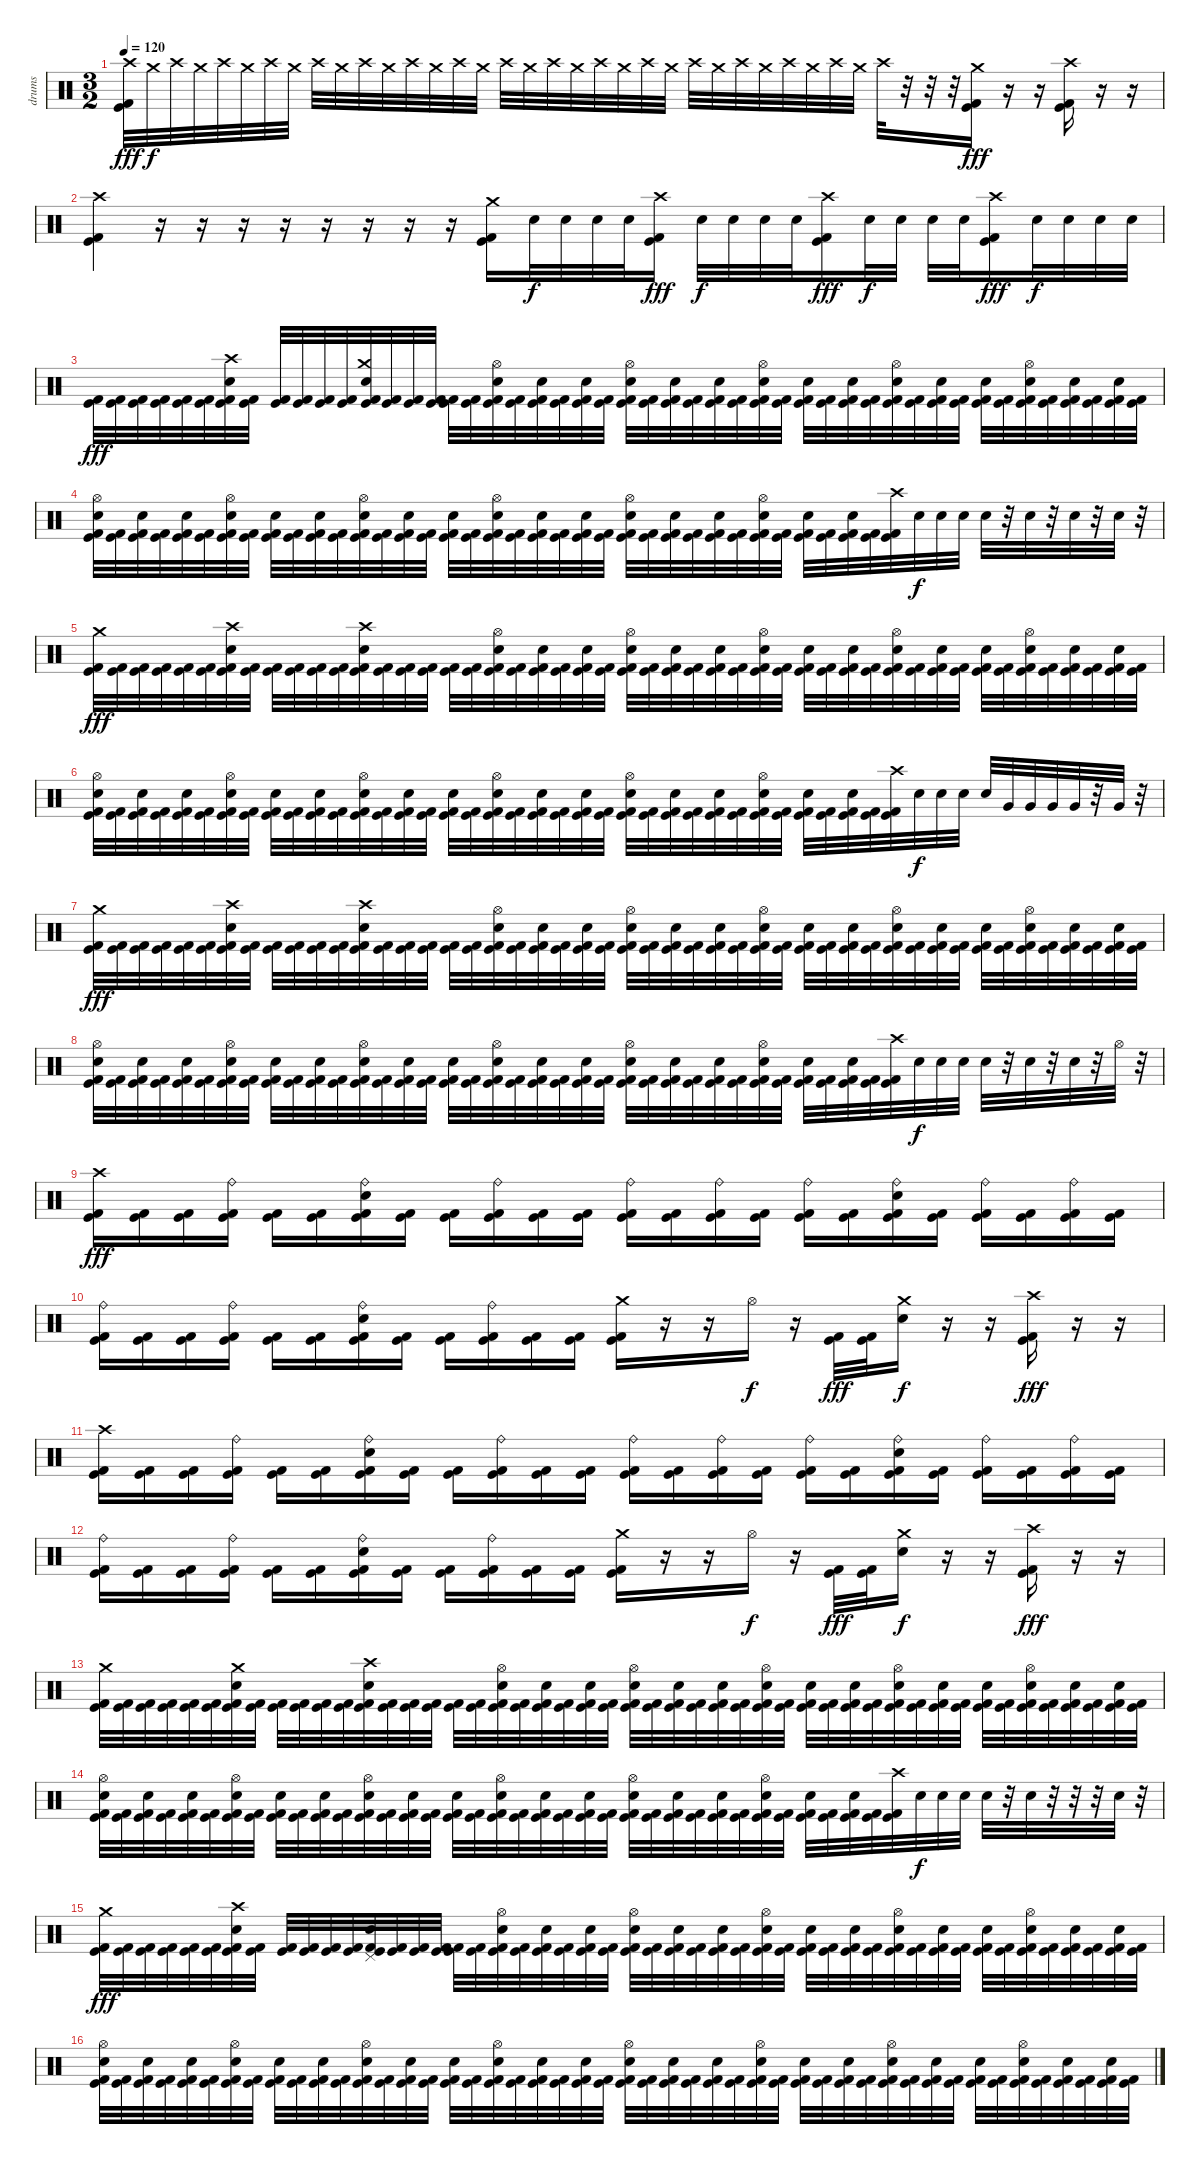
\track ("drums" "drums") {instrument percussion}
\staff {score}
\articulation defaults
\ts (3 2)
\tempo 120
\clef neutral
\ks c
("Crash high (hit)" "Kick (hit)" "Kick (hit) 2").32{dy fff} "Crash medium (hit)".32{dy f} "Crash high (hit)".32 "Crash medium (hit)".32 "Crash high (hit)".32 "Crash medium (hit)".32 "Crash high (hit)".32 "Crash medium (hit)".32 "Crash high (hit)".32 "Crash medium (hit)".32 "Crash high (hit)".32 "Crash medium (hit)".32 "Crash high (hit)".32 "Crash medium (hit)".32 "Crash high (hit)".32 "Crash medium (hit)".32 "Crash high (hit)".32 "Crash medium (hit)".32 "Crash high (hit)".32 "Crash medium (hit)".32 "Crash high (hit)".32 "Crash medium (hit)".32 "Crash high (hit)".32 "Crash medium (hit)".32 "Crash high (hit)".32 "Crash medium (hit)".32 "Crash high (hit)".32 "Crash medium (hit)".32 "Crash high (hit)".32 "Crash medium (hit)".32 "Crash high (hit)".32 "Crash medium (hit)".32 "Crash high (hit)".32 r.32 r.32 r.32 ("Crash medium (hit)" "Kick (hit)" "Kick (hit) 2").16{dy fff} r.16 r.16 ("Crash high (hit)" "Kick (hit)" "Kick (hit) 2").16 r.16 r.16 |
("Crash high (hit)" "Kick (hit)" "Kick (hit) 2").4 r.16 r.16 r.16 r.16 r.16 r.16 r.16 r.16 ("Crash medium (hit)" "Kick (hit)" "Kick (hit) 2").16 "Electric Snare (hit)".32{dy f} "Electric Snare (hit)".32 "Electric Snare (hit)".32 "Electric Snare (hit)".32 ("Crash high (hit)" "Kick (hit)" "Kick (hit) 2").16{dy fff} "Electric Snare (hit)".32{dy f} "Electric Snare (hit)".32 "Electric Snare (hit)".32 "Electric Snare (hit)".32 ("Crash high (hit)" "Kick (hit)" "Kick (hit) 2").16{dy fff} "Electric Snare (hit)".32{dy f} "Electric Snare (hit)".32 "Electric Snare (hit)".32 "Electric Snare (hit)".32 ("Crash high (hit)" "Kick (hit)" "Kick (hit) 2").16{dy fff} "Electric Snare (hit)".32{dy f} "Electric Snare (hit)".32 "Electric Snare (hit)".32 "Electric Snare (hit)".32 |
("Kick (hit)" "Kick (hit) 2").32{dy fff} ("Kick (hit)" "Kick (hit) 2").32 ("Kick (hit)" "Kick (hit) 2").32 ("Kick (hit)" "Kick (hit) 2").32 ("Kick (hit)" "Kick (hit) 2").32 ("Kick (hit)" "Kick (hit) 2").32 ("Crash high (hit)" "Electric Snare (hit)" "Kick (hit)" "Kick (hit) 2").32 ("Kick (hit)" "Kick (hit) 2").32 ("Kick (hit)" "Kick (hit) 2").32 ("Kick (hit)" "Kick (hit) 2").32 ("Kick (hit)" "Kick (hit) 2").32 ("Kick (hit)" "Kick (hit) 2").32 ("Crash medium (hit)" "Electric Snare (hit)" "Kick (hit)" "Kick (hit) 2").32 ("Kick (hit)" "Kick (hit) 2").32 ("Kick (hit)" "Kick (hit) 2").32 ("Kick (hit)" "Kick (hit) 2").32 ("Kick (hit)" "Kick (hit) 2").32 ("Kick (hit)" "Kick (hit) 2").32 ("Hi-Hat (open)" "Electric Snare (hit)" "Kick (hit)" "Kick (hit) 2").32 ("Kick (hit)" "Kick (hit) 2").32 ("Electric Snare (hit)" "Kick (hit)" "Kick (hit) 2").32 ("Kick (hit)" "Kick (hit) 2").32 ("Electric Snare (hit)" "Kick (hit)" "Kick (hit) 2").32 ("Kick (hit)" "Kick (hit) 2").32 ("Hi-Hat (open)" "Electric Snare (hit)" "Kick (hit)" "Kick (hit) 2").32 ("Kick (hit)" "Kick (hit) 2").32 ("Electric Snare (hit)" "Kick (hit)" "Kick (hit) 2").32 ("Kick (hit)" "Kick (hit) 2").32 ("Electric Snare (hit)" "Kick (hit)" "Kick (hit) 2").32 ("Kick (hit)" "Kick (hit) 2").32 ("Hi-Hat (open)" "Electric Snare (hit)" "Kick (hit)" "Kick (hit) 2").32 ("Kick (hit)" "Kick (hit) 2").32 ("Electric Snare (hit)" "Kick (hit)" "Kick (hit) 2").32 ("Kick (hit)" "Kick (hit) 2").32 ("Electric Snare (hit)" "Kick (hit)" "Kick (hit) 2").32 ("Kick (hit)" "Kick (hit) 2").32 ("Hi-Hat (open)" "Electric Snare (hit)" "Kick (hit)" "Kick (hit) 2").32 ("Kick (hit)" "Kick (hit) 2").32 ("Electric Snare (hit)" "Kick (hit)" "Kick (hit) 2").32 ("Kick (hit)" "Kick (hit) 2").32 ("Electric Snare (hit)" "Kick (hit)" "Kick (hit) 2").32 ("Kick (hit)" "Kick (hit) 2").32 ("Hi-Hat (open)" "Electric Snare (hit)" "Kick (hit)" "Kick (hit) 2").32 ("Kick (hit)" "Kick (hit) 2").32 ("Electric Snare (hit)" "Kick (hit)" "Kick (hit) 2").32 ("Kick (hit)" "Kick (hit) 2").32 ("Electric Snare (hit)" "Kick (hit)" "Kick (hit) 2").32 ("Kick (hit)" "Kick (hit) 2").32 |
("Hi-Hat (open)" "Electric Snare (hit)" "Kick (hit)" "Kick (hit) 2").32 ("Kick (hit)" "Kick (hit) 2").32 ("Electric Snare (hit)" "Kick (hit)" "Kick (hit) 2").32 ("Kick (hit)" "Kick (hit) 2").32 ("Electric Snare (hit)" "Kick (hit)" "Kick (hit) 2").32 ("Kick (hit)" "Kick (hit) 2").32 ("Hi-Hat (open)" "Electric Snare (hit)" "Kick (hit)" "Kick (hit) 2").32 ("Kick (hit)" "Kick (hit) 2").32 ("Electric Snare (hit)" "Kick (hit)" "Kick (hit) 2").32 ("Kick (hit)" "Kick (hit) 2").32 ("Electric Snare (hit)" "Kick (hit)" "Kick (hit) 2").32 ("Kick (hit)" "Kick (hit) 2").32 ("Hi-Hat (open)" "Electric Snare (hit)" "Kick (hit)" "Kick (hit) 2").32 ("Kick (hit)" "Kick (hit) 2").32 ("Electric Snare (hit)" "Kick (hit)" "Kick (hit) 2").32 ("Kick (hit)" "Kick (hit) 2").32 ("Electric Snare (hit)" "Kick (hit)" "Kick (hit) 2").32 ("Kick (hit)" "Kick (hit) 2").32 ("Hi-Hat (open)" "Electric Snare (hit)" "Kick (hit)" "Kick (hit) 2").32 ("Kick (hit)" "Kick (hit) 2").32 ("Electric Snare (hit)" "Kick (hit)" "Kick (hit) 2").32 ("Kick (hit)" "Kick (hit) 2").32 ("Electric Snare (hit)" "Kick (hit)" "Kick (hit) 2").32 ("Kick (hit)" "Kick (hit) 2").32 ("Hi-Hat (open)" "Electric Snare (hit)" "Kick (hit)" "Kick (hit) 2").32 ("Kick (hit)" "Kick (hit) 2").32 ("Electric Snare (hit)" "Kick (hit)" "Kick (hit) 2").32 ("Kick (hit)" "Kick (hit) 2").32 ("Electric Snare (hit)" "Kick (hit)" "Kick (hit) 2").32 ("Kick (hit)" "Kick (hit) 2").32 ("Hi-Hat (open)" "Electric Snare (hit)" "Kick (hit)" "Kick (hit) 2").32 ("Kick (hit)" "Kick (hit) 2").32 ("Electric Snare (hit)" "Kick (hit)" "Kick (hit) 2").32 ("Kick (hit)" "Kick (hit) 2").32 ("Electric Snare (hit)" "Kick (hit)" "Kick (hit) 2").32 ("Kick (hit)" "Kick (hit) 2").32 ("Crash high (hit)" "Kick (hit)" "Kick (hit) 2").32 "Electric Snare (hit)".32{dy f} "Electric Snare (hit)".32 "Electric Snare (hit)".32 "Electric Snare (hit)".32 r.32 "Electric Snare (hit)".32 r.32 "Electric Snare (hit)".32 r.32 "Electric Snare (hit)".32 r.32 |
("Crash medium (hit)" "Kick (hit)" "Kick (hit) 2").32{dy fff} ("Kick (hit)" "Kick (hit) 2").32 ("Kick (hit)" "Kick (hit) 2").32 ("Kick (hit)" "Kick (hit) 2").32 ("Kick (hit)" "Kick (hit) 2").32 ("Kick (hit)" "Kick (hit) 2").32 ("Crash high (hit)" "Electric Snare (hit)" "Kick (hit)" "Kick (hit) 2").32 ("Kick (hit)" "Kick (hit) 2").32 ("Kick (hit)" "Kick (hit) 2").32 ("Kick (hit)" "Kick (hit) 2").32 ("Kick (hit)" "Kick (hit) 2").32 ("Kick (hit)" "Kick (hit) 2").32 ("Crash high (hit)" "Electric Snare (hit)" "Kick (hit)" "Kick (hit) 2").32 ("Kick (hit)" "Kick (hit) 2").32 ("Kick (hit)" "Kick (hit) 2").32 ("Kick (hit)" "Kick (hit) 2").32 ("Kick (hit)" "Kick (hit) 2").32 ("Kick (hit)" "Kick (hit) 2").32 ("Hi-Hat (open)" "Electric Snare (hit)" "Kick (hit)" "Kick (hit) 2").32 ("Kick (hit)" "Kick (hit) 2").32 ("Electric Snare (hit)" "Kick (hit)" "Kick (hit) 2").32 ("Kick (hit)" "Kick (hit) 2").32 ("Electric Snare (hit)" "Kick (hit)" "Kick (hit) 2").32 ("Kick (hit)" "Kick (hit) 2").32 ("Hi-Hat (open)" "Electric Snare (hit)" "Kick (hit)" "Kick (hit) 2").32 ("Kick (hit)" "Kick (hit) 2").32 ("Electric Snare (hit)" "Kick (hit)" "Kick (hit) 2").32 ("Kick (hit)" "Kick (hit) 2").32 ("Electric Snare (hit)" "Kick (hit)" "Kick (hit) 2").32 ("Kick (hit)" "Kick (hit) 2").32 ("Hi-Hat (open)" "Electric Snare (hit)" "Kick (hit)" "Kick (hit) 2").32 ("Kick (hit)" "Kick (hit) 2").32 ("Electric Snare (hit)" "Kick (hit)" "Kick (hit) 2").32 ("Kick (hit)" "Kick (hit) 2").32 ("Electric Snare (hit)" "Kick (hit)" "Kick (hit) 2").32 ("Kick (hit)" "Kick (hit) 2").32 ("Hi-Hat (open)" "Electric Snare (hit)" "Kick (hit)" "Kick (hit) 2").32 ("Kick (hit)" "Kick (hit) 2").32 ("Electric Snare (hit)" "Kick (hit)" "Kick (hit) 2").32 ("Kick (hit)" "Kick (hit) 2").32 ("Electric Snare (hit)" "Kick (hit)" "Kick (hit) 2").32 ("Kick (hit)" "Kick (hit) 2").32 ("Hi-Hat (open)" "Electric Snare (hit)" "Kick (hit)" "Kick (hit) 2").32 ("Kick (hit)" "Kick (hit) 2").32 ("Electric Snare (hit)" "Kick (hit)" "Kick (hit) 2").32 ("Kick (hit)" "Kick (hit) 2").32 ("Electric Snare (hit)" "Kick (hit)" "Kick (hit) 2").32 ("Kick (hit)" "Kick (hit) 2").32 |
("Hi-Hat (open)" "Electric Snare (hit)" "Kick (hit)" "Kick (hit) 2").32 ("Kick (hit)" "Kick (hit) 2").32 ("Electric Snare (hit)" "Kick (hit)" "Kick (hit) 2").32 ("Kick (hit)" "Kick (hit) 2").32 ("Electric Snare (hit)" "Kick (hit)" "Kick (hit) 2").32 ("Kick (hit)" "Kick (hit) 2").32 ("Hi-Hat (open)" "Electric Snare (hit)" "Kick (hit)" "Kick (hit) 2").32 ("Kick (hit)" "Kick (hit) 2").32 ("Electric Snare (hit)" "Kick (hit)" "Kick (hit) 2").32 ("Kick (hit)" "Kick (hit) 2").32 ("Electric Snare (hit)" "Kick (hit)" "Kick (hit) 2").32 ("Kick (hit)" "Kick (hit) 2").32 ("Hi-Hat (open)" "Electric Snare (hit)" "Kick (hit)" "Kick (hit) 2").32 ("Kick (hit)" "Kick (hit) 2").32 ("Electric Snare (hit)" "Kick (hit)" "Kick (hit) 2").32 ("Kick (hit)" "Kick (hit) 2").32 ("Electric Snare (hit)" "Kick (hit)" "Kick (hit) 2").32 ("Kick (hit)" "Kick (hit) 2").32 ("Hi-Hat (open)" "Electric Snare (hit)" "Kick (hit)" "Kick (hit) 2").32 ("Kick (hit)" "Kick (hit) 2").32 ("Electric Snare (hit)" "Kick (hit)" "Kick (hit) 2").32 ("Kick (hit)" "Kick (hit) 2").32 ("Electric Snare (hit)" "Kick (hit)" "Kick (hit) 2").32 ("Kick (hit)" "Kick (hit) 2").32 ("Hi-Hat (open)" "Electric Snare (hit)" "Kick (hit)" "Kick (hit) 2").32 ("Kick (hit)" "Kick (hit) 2").32 ("Electric Snare (hit)" "Kick (hit)" "Kick (hit) 2").32 ("Kick (hit)" "Kick (hit) 2").32 ("Electric Snare (hit)" "Kick (hit)" "Kick (hit) 2").32 ("Kick (hit)" "Kick (hit) 2").32 ("Hi-Hat (open)" "Electric Snare (hit)" "Kick (hit)" "Kick (hit) 2").32 ("Kick (hit)" "Kick (hit) 2").32 ("Electric Snare (hit)" "Kick (hit)" "Kick (hit) 2").32 ("Kick (hit)" "Kick (hit) 2").32 ("Electric Snare (hit)" "Kick (hit)" "Kick (hit) 2").32 ("Kick (hit)" "Kick (hit) 2").32 ("Crash high (hit)" "Kick (hit)" "Kick (hit) 2").32 "Electric Snare (hit)".32{dy f} "Electric Snare (hit)".32 "Electric Snare (hit)".32 "Electric Snare (hit)".32 "Very Low Tom (hit)".32 "Very Low Tom (hit)".32 "Very Low Tom (hit)".32 "Very Low Tom (hit)".32 r.32 "Very Low Tom (hit)".32 r.32 |
("Crash medium (hit)" "Kick (hit)" "Kick (hit) 2").32{dy fff} ("Kick (hit)" "Kick (hit) 2").32 ("Kick (hit)" "Kick (hit) 2").32 ("Kick (hit)" "Kick (hit) 2").32 ("Kick (hit)" "Kick (hit) 2").32 ("Kick (hit)" "Kick (hit) 2").32 ("Crash high (hit)" "Electric Snare (hit)" "Kick (hit)" "Kick (hit) 2").32 ("Kick (hit)" "Kick (hit) 2").32 ("Kick (hit)" "Kick (hit) 2").32 ("Kick (hit)" "Kick (hit) 2").32 ("Kick (hit)" "Kick (hit) 2").32 ("Kick (hit)" "Kick (hit) 2").32 ("Crash high (hit)" "Electric Snare (hit)" "Kick (hit)" "Kick (hit) 2").32 ("Kick (hit)" "Kick (hit) 2").32 ("Kick (hit)" "Kick (hit) 2").32 ("Kick (hit)" "Kick (hit) 2").32 ("Kick (hit)" "Kick (hit) 2").32 ("Kick (hit)" "Kick (hit) 2").32 ("Hi-Hat (open)" "Electric Snare (hit)" "Kick (hit)" "Kick (hit) 2").32 ("Kick (hit)" "Kick (hit) 2").32 ("Electric Snare (hit)" "Kick (hit)" "Kick (hit) 2").32 ("Kick (hit)" "Kick (hit) 2").32 ("Electric Snare (hit)" "Kick (hit)" "Kick (hit) 2").32 ("Kick (hit)" "Kick (hit) 2").32 ("Hi-Hat (open)" "Electric Snare (hit)" "Kick (hit)" "Kick (hit) 2").32 ("Kick (hit)" "Kick (hit) 2").32 ("Electric Snare (hit)" "Kick (hit)" "Kick (hit) 2").32 ("Kick (hit)" "Kick (hit) 2").32 ("Electric Snare (hit)" "Kick (hit)" "Kick (hit) 2").32 ("Kick (hit)" "Kick (hit) 2").32 ("Hi-Hat (open)" "Electric Snare (hit)" "Kick (hit)" "Kick (hit) 2").32 ("Kick (hit)" "Kick (hit) 2").32 ("Electric Snare (hit)" "Kick (hit)" "Kick (hit) 2").32 ("Kick (hit)" "Kick (hit) 2").32 ("Electric Snare (hit)" "Kick (hit)" "Kick (hit) 2").32 ("Kick (hit)" "Kick (hit) 2").32 ("Hi-Hat (open)" "Electric Snare (hit)" "Kick (hit)" "Kick (hit) 2").32 ("Kick (hit)" "Kick (hit) 2").32 ("Electric Snare (hit)" "Kick (hit)" "Kick (hit) 2").32 ("Kick (hit)" "Kick (hit) 2").32 ("Electric Snare (hit)" "Kick (hit)" "Kick (hit) 2").32 ("Kick (hit)" "Kick (hit) 2").32 ("Hi-Hat (open)" "Electric Snare (hit)" "Kick (hit)" "Kick (hit) 2").32 ("Kick (hit)" "Kick (hit) 2").32 ("Electric Snare (hit)" "Kick (hit)" "Kick (hit) 2").32 ("Kick (hit)" "Kick (hit) 2").32 ("Electric Snare (hit)" "Kick (hit)" "Kick (hit) 2").32 ("Kick (hit)" "Kick (hit) 2").32 |
("Hi-Hat (open)" "Electric Snare (hit)" "Kick (hit)" "Kick (hit) 2").32 ("Kick (hit)" "Kick (hit) 2").32 ("Electric Snare (hit)" "Kick (hit)" "Kick (hit) 2").32 ("Kick (hit)" "Kick (hit) 2").32 ("Electric Snare (hit)" "Kick (hit)" "Kick (hit) 2").32 ("Kick (hit)" "Kick (hit) 2").32 ("Hi-Hat (open)" "Electric Snare (hit)" "Kick (hit)" "Kick (hit) 2").32 ("Kick (hit)" "Kick (hit) 2").32 ("Electric Snare (hit)" "Kick (hit)" "Kick (hit) 2").32 ("Kick (hit)" "Kick (hit) 2").32 ("Electric Snare (hit)" "Kick (hit)" "Kick (hit) 2").32 ("Kick (hit)" "Kick (hit) 2").32 ("Hi-Hat (open)" "Electric Snare (hit)" "Kick (hit)" "Kick (hit) 2").32 ("Kick (hit)" "Kick (hit) 2").32 ("Electric Snare (hit)" "Kick (hit)" "Kick (hit) 2").32 ("Kick (hit)" "Kick (hit) 2").32 ("Electric Snare (hit)" "Kick (hit)" "Kick (hit) 2").32 ("Kick (hit)" "Kick (hit) 2").32 ("Hi-Hat (open)" "Electric Snare (hit)" "Kick (hit)" "Kick (hit) 2").32 ("Kick (hit)" "Kick (hit) 2").32 ("Electric Snare (hit)" "Kick (hit)" "Kick (hit) 2").32 ("Kick (hit)" "Kick (hit) 2").32 ("Electric Snare (hit)" "Kick (hit)" "Kick (hit) 2").32 ("Kick (hit)" "Kick (hit) 2").32 ("Hi-Hat (open)" "Electric Snare (hit)" "Kick (hit)" "Kick (hit) 2").32 ("Kick (hit)" "Kick (hit) 2").32 ("Electric Snare (hit)" "Kick (hit)" "Kick (hit) 2").32 ("Kick (hit)" "Kick (hit) 2").32 ("Electric Snare (hit)" "Kick (hit)" "Kick (hit) 2").32 ("Kick (hit)" "Kick (hit) 2").32 ("Hi-Hat (open)" "Electric Snare (hit)" "Kick (hit)" "Kick (hit) 2").32 ("Kick (hit)" "Kick (hit) 2").32 ("Electric Snare (hit)" "Kick (hit)" "Kick (hit) 2").32 ("Kick (hit)" "Kick (hit) 2").32 ("Electric Snare (hit)" "Kick (hit)" "Kick (hit) 2").32 ("Kick (hit)" "Kick (hit) 2").32 ("Crash high (hit)" "Kick (hit)" "Kick (hit) 2").32 "Electric Snare (hit)".32{dy f} "Electric Snare (hit)".32 "Electric Snare (hit)".32 "Electric Snare (hit)".32 r.32 "Electric Snare (hit)".32 r.32 "Electric Snare (hit)".32 r.32 "Hi-Hat (open)".32 r.32 |
("Crash high (hit)" "Kick (hit)" "Kick (hit) 2").16{dy fff} ("Kick (hit)" "Kick (hit) 2").16 ("Kick (hit)" "Kick (hit) 2").16 ("Ride (bell)" "Kick (hit)" "Kick (hit) 2").16 ("Kick (hit)" "Kick (hit) 2").16 ("Kick (hit)" "Kick (hit) 2").16 ("Ride (bell)" "Electric Snare (hit)" "Kick (hit)" "Kick (hit) 2").16 ("Kick (hit)" "Kick (hit) 2").16 ("Kick (hit)" "Kick (hit) 2").16 ("Ride (bell)" "Kick (hit)" "Kick (hit) 2").16 ("Kick (hit)" "Kick (hit) 2").16 ("Kick (hit)" "Kick (hit) 2").16 ("Ride (bell)" "Kick (hit)" "Kick (hit) 2").16 ("Kick (hit)" "Kick (hit) 2").16 ("Ride (bell)" "Kick (hit)" "Kick (hit) 2").16 ("Kick (hit)" "Kick (hit) 2").16 ("Ride (bell)" "Kick (hit)" "Kick (hit) 2").16 ("Kick (hit)" "Kick (hit) 2").16 ("Ride (bell)" "Electric Snare (hit)" "Kick (hit)" "Kick (hit) 2").16 ("Kick (hit)" "Kick (hit) 2").16 ("Ride (bell)" "Kick (hit)" "Kick (hit) 2").16 ("Kick (hit)" "Kick (hit) 2").16 ("Ride (bell)" "Kick (hit)" "Kick (hit) 2").16 ("Kick (hit)" "Kick (hit) 2").16 |
("Ride (bell)" "Kick (hit)" "Kick (hit) 2").16 ("Kick (hit)" "Kick (hit) 2").16 ("Kick (hit)" "Kick (hit) 2").16 ("Ride (bell)" "Kick (hit)" "Kick (hit) 2").16 ("Kick (hit)" "Kick (hit) 2").16 ("Kick (hit)" "Kick (hit) 2").16 ("Ride (bell)" "Electric Snare (hit)" "Kick (hit)" "Kick (hit) 2").16 ("Kick (hit)" "Kick (hit) 2").16 ("Kick (hit)" "Kick (hit) 2").16 ("Ride (bell)" "Kick (hit)" "Kick (hit) 2").16 ("Kick (hit)" "Kick (hit) 2").16 ("Kick (hit)" "Kick (hit) 2").16 ("Crash medium (hit)" "Kick (hit)" "Kick (hit) 2").16 r.16 r.16 "Hi-Hat (open)".16{dy f} r.16 ("Kick (hit)" "Kick (hit) 2").32{dy fff} ("Kick (hit)" "Kick (hit) 2").32 ("Crash medium (hit)" "Electric Snare (hit)").16{dy f} r.16 r.16 ("Crash high (hit)" "Kick (hit)" "Kick (hit) 2").16{dy fff} r.16 r.16 |
("Crash high (hit)" "Kick (hit)" "Kick (hit) 2").16 ("Kick (hit)" "Kick (hit) 2").16 ("Kick (hit)" "Kick (hit) 2").16 ("Ride (bell)" "Kick (hit)" "Kick (hit) 2").16 ("Kick (hit)" "Kick (hit) 2").16 ("Kick (hit)" "Kick (hit) 2").16 ("Ride (bell)" "Electric Snare (hit)" "Kick (hit)" "Kick (hit) 2").16 ("Kick (hit)" "Kick (hit) 2").16 ("Kick (hit)" "Kick (hit) 2").16 ("Ride (bell)" "Kick (hit)" "Kick (hit) 2").16 ("Kick (hit)" "Kick (hit) 2").16 ("Kick (hit)" "Kick (hit) 2").16 ("Ride (bell)" "Kick (hit)" "Kick (hit) 2").16 ("Kick (hit)" "Kick (hit) 2").16 ("Ride (bell)" "Kick (hit)" "Kick (hit) 2").16 ("Kick (hit)" "Kick (hit) 2").16 ("Ride (bell)" "Kick (hit)" "Kick (hit) 2").16 ("Kick (hit)" "Kick (hit) 2").16 ("Ride (bell)" "Electric Snare (hit)" "Kick (hit)" "Kick (hit) 2").16 ("Kick (hit)" "Kick (hit) 2").16 ("Ride (bell)" "Kick (hit)" "Kick (hit) 2").16 ("Kick (hit)" "Kick (hit) 2").16 ("Ride (bell)" "Kick (hit)" "Kick (hit) 2").16 ("Kick (hit)" "Kick (hit) 2").16 |
("Ride (bell)" "Kick (hit)" "Kick (hit) 2").16 ("Kick (hit)" "Kick (hit) 2").16 ("Kick (hit)" "Kick (hit) 2").16 ("Ride (bell)" "Kick (hit)" "Kick (hit) 2").16 ("Kick (hit)" "Kick (hit) 2").16 ("Kick (hit)" "Kick (hit) 2").16 ("Ride (bell)" "Electric Snare (hit)" "Kick (hit)" "Kick (hit) 2").16 ("Kick (hit)" "Kick (hit) 2").16 ("Kick (hit)" "Kick (hit) 2").16 ("Ride (bell)" "Kick (hit)" "Kick (hit) 2").16 ("Kick (hit)" "Kick (hit) 2").16 ("Kick (hit)" "Kick (hit) 2").16 ("Crash medium (hit)" "Kick (hit)" "Kick (hit) 2").16 r.16 r.16 "Hi-Hat (open)".16{dy f} r.16 ("Kick (hit)" "Kick (hit) 2").32{dy fff} ("Kick (hit)" "Kick (hit) 2").32 ("Crash medium (hit)" "Electric Snare (hit)").16{dy f} r.16 r.16 ("Crash high (hit)" "Kick (hit)" "Kick (hit) 2").16{dy fff} r.16 r.16 |
("Crash medium (hit)" "Kick (hit)" "Kick (hit) 2").32 ("Kick (hit)" "Kick (hit) 2").32 ("Kick (hit)" "Kick (hit) 2").32 ("Kick (hit)" "Kick (hit) 2").32 ("Kick (hit)" "Kick (hit) 2").32 ("Kick (hit)" "Kick (hit) 2").32 ("Crash medium (hit)" "Electric Snare (hit)" "Kick (hit)" "Kick (hit) 2").32 ("Kick (hit)" "Kick (hit) 2").32 ("Kick (hit)" "Kick (hit) 2").32 ("Kick (hit)" "Kick (hit) 2").32 ("Kick (hit)" "Kick (hit) 2").32 ("Kick (hit)" "Kick (hit) 2").32 ("Crash high (hit)" "Electric Snare (hit)" "Kick (hit)" "Kick (hit) 2").32 ("Kick (hit)" "Kick (hit) 2").32 ("Kick (hit)" "Kick (hit) 2").32 ("Kick (hit)" "Kick (hit) 2").32 ("Kick (hit)" "Kick (hit) 2").32 ("Kick (hit)" "Kick (hit) 2").32 ("Hi-Hat (open)" "Electric Snare (hit)" "Kick (hit)" "Kick (hit) 2").32 ("Kick (hit)" "Kick (hit) 2").32 ("Electric Snare (hit)" "Kick (hit)" "Kick (hit) 2").32 ("Kick (hit)" "Kick (hit) 2").32 ("Electric Snare (hit)" "Kick (hit)" "Kick (hit) 2").32 ("Kick (hit)" "Kick (hit) 2").32 ("Hi-Hat (open)" "Electric Snare (hit)" "Kick (hit)" "Kick (hit) 2").32 ("Kick (hit)" "Kick (hit) 2").32 ("Electric Snare (hit)" "Kick (hit)" "Kick (hit) 2").32 ("Kick (hit)" "Kick (hit) 2").32 ("Electric Snare (hit)" "Kick (hit)" "Kick (hit) 2").32 ("Kick (hit)" "Kick (hit) 2").32 ("Hi-Hat (open)" "Electric Snare (hit)" "Kick (hit)" "Kick (hit) 2").32 ("Kick (hit)" "Kick (hit) 2").32 ("Electric Snare (hit)" "Kick (hit)" "Kick (hit) 2").32 ("Kick (hit)" "Kick (hit) 2").32 ("Electric Snare (hit)" "Kick (hit)" "Kick (hit) 2").32 ("Kick (hit)" "Kick (hit) 2").32 ("Hi-Hat (open)" "Electric Snare (hit)" "Kick (hit)" "Kick (hit) 2").32 ("Kick (hit)" "Kick (hit) 2").32 ("Electric Snare (hit)" "Kick (hit)" "Kick (hit) 2").32 ("Kick (hit)" "Kick (hit) 2").32 ("Electric Snare (hit)" "Kick (hit)" "Kick (hit) 2").32 ("Kick (hit)" "Kick (hit) 2").32 ("Hi-Hat (open)" "Electric Snare (hit)" "Kick (hit)" "Kick (hit) 2").32 ("Kick (hit)" "Kick (hit) 2").32 ("Electric Snare (hit)" "Kick (hit)" "Kick (hit) 2").32 ("Kick (hit)" "Kick (hit) 2").32 ("Electric Snare (hit)" "Kick (hit)" "Kick (hit) 2").32 ("Kick (hit)" "Kick (hit) 2").32 |
("Hi-Hat (open)" "Electric Snare (hit)" "Kick (hit)" "Kick (hit) 2").32 ("Kick (hit)" "Kick (hit) 2").32 ("Electric Snare (hit)" "Kick (hit)" "Kick (hit) 2").32 ("Kick (hit)" "Kick (hit) 2").32 ("Electric Snare (hit)" "Kick (hit)" "Kick (hit) 2").32 ("Kick (hit)" "Kick (hit) 2").32 ("Hi-Hat (open)" "Electric Snare (hit)" "Kick (hit)" "Kick (hit) 2").32 ("Kick (hit)" "Kick (hit) 2").32 ("Electric Snare (hit)" "Kick (hit)" "Kick (hit) 2").32 ("Kick (hit)" "Kick (hit) 2").32 ("Electric Snare (hit)" "Kick (hit)" "Kick (hit) 2").32 ("Kick (hit)" "Kick (hit) 2").32 ("Hi-Hat (open)" "Electric Snare (hit)" "Kick (hit)" "Kick (hit) 2").32 ("Kick (hit)" "Kick (hit) 2").32 ("Electric Snare (hit)" "Kick (hit)" "Kick (hit) 2").32 ("Kick (hit)" "Kick (hit) 2").32 ("Electric Snare (hit)" "Kick (hit)" "Kick (hit) 2").32 ("Kick (hit)" "Kick (hit) 2").32 ("Hi-Hat (open)" "Electric Snare (hit)" "Kick (hit)" "Kick (hit) 2").32 ("Kick (hit)" "Kick (hit) 2").32 ("Electric Snare (hit)" "Kick (hit)" "Kick (hit) 2").32 ("Kick (hit)" "Kick (hit) 2").32 ("Electric Snare (hit)" "Kick (hit)" "Kick (hit) 2").32 ("Kick (hit)" "Kick (hit) 2").32 ("Hi-Hat (open)" "Electric Snare (hit)" "Kick (hit)" "Kick (hit) 2").32 ("Kick (hit)" "Kick (hit) 2").32 ("Electric Snare (hit)" "Kick (hit)" "Kick (hit) 2").32 ("Kick (hit)" "Kick (hit) 2").32 ("Electric Snare (hit)" "Kick (hit)" "Kick (hit) 2").32 ("Kick (hit)" "Kick (hit) 2").32 ("Hi-Hat (open)" "Electric Snare (hit)" "Kick (hit)" "Kick (hit) 2").32 ("Kick (hit)" "Kick (hit) 2").32 ("Electric Snare (hit)" "Kick (hit)" "Kick (hit) 2").32 ("Kick (hit)" "Kick (hit) 2").32 ("Electric Snare (hit)" "Kick (hit)" "Kick (hit) 2").32 ("Kick (hit)" "Kick (hit) 2").32 ("Crash high (hit)" "Kick (hit)" "Kick (hit) 2").32 "Electric Snare (hit)".32{dy f} "Electric Snare (hit)".32 "Electric Snare (hit)".32 "Electric Snare (hit)".32 r.32 "Electric Snare (hit)".32 r.32 r.32 r.32 "Electric Snare (hit)".32 r.32 |
("Crash medium (hit)" "Kick (hit)" "Kick (hit) 2").32{dy fff} ("Kick (hit)" "Kick (hit) 2").32 ("Kick (hit)" "Kick (hit) 2").32 ("Kick (hit)" "Kick (hit) 2").32 ("Kick (hit)" "Kick (hit) 2").32 ("Kick (hit)" "Kick (hit) 2").32 ("Crash high (hit)" "Electric Snare (hit)" "Kick (hit)" "Kick (hit) 2").32 ("Kick (hit)" "Kick (hit) 2").32 ("Kick (hit)" "Kick (hit) 2").32 ("Kick (hit)" "Kick (hit) 2").32 ("Kick (hit)" "Kick (hit) 2").32 ("Kick (hit)" "Kick (hit) 2").32 ("Pedal Hi-Hat (hit)" "Electric Snare (hit)" "Kick (hit)" "Kick (hit) 2").32 ("Kick (hit)" "Kick (hit) 2").32 ("Kick (hit)" "Kick (hit) 2").32 ("Kick (hit)" "Kick (hit) 2").32 ("Kick (hit)" "Kick (hit) 2").32 ("Kick (hit)" "Kick (hit) 2").32 ("Hi-Hat (open)" "Electric Snare (hit)" "Kick (hit)" "Kick (hit) 2").32 ("Kick (hit)" "Kick (hit) 2").32 ("Electric Snare (hit)" "Kick (hit)" "Kick (hit) 2").32 ("Kick (hit)" "Kick (hit) 2").32 ("Electric Snare (hit)" "Kick (hit)" "Kick (hit) 2").32 ("Kick (hit)" "Kick (hit) 2").32 ("Hi-Hat (open)" "Electric Snare (hit)" "Kick (hit)" "Kick (hit) 2").32 ("Kick (hit)" "Kick (hit) 2").32 ("Electric Snare (hit)" "Kick (hit)" "Kick (hit) 2").32 ("Kick (hit)" "Kick (hit) 2").32 ("Electric Snare (hit)" "Kick (hit)" "Kick (hit) 2").32 ("Kick (hit)" "Kick (hit) 2").32 ("Hi-Hat (open)" "Electric Snare (hit)" "Kick (hit)" "Kick (hit) 2").32 ("Kick (hit)" "Kick (hit) 2").32 ("Electric Snare (hit)" "Kick (hit)" "Kick (hit) 2").32 ("Kick (hit)" "Kick (hit) 2").32 ("Electric Snare (hit)" "Kick (hit)" "Kick (hit) 2").32 ("Kick (hit)" "Kick (hit) 2").32 ("Hi-Hat (open)" "Electric Snare (hit)" "Kick (hit)" "Kick (hit) 2").32 ("Kick (hit)" "Kick (hit) 2").32 ("Electric Snare (hit)" "Kick (hit)" "Kick (hit) 2").32 ("Kick (hit)" "Kick (hit) 2").32 ("Electric Snare (hit)" "Kick (hit)" "Kick (hit) 2").32 ("Kick (hit)" "Kick (hit) 2").32 ("Hi-Hat (open)" "Electric Snare (hit)" "Kick (hit)" "Kick (hit) 2").32 ("Kick (hit)" "Kick (hit) 2").32 ("Electric Snare (hit)" "Kick (hit)" "Kick (hit) 2").32 ("Kick (hit)" "Kick (hit) 2").32 ("Electric Snare (hit)" "Kick (hit)" "Kick (hit) 2").32 ("Kick (hit)" "Kick (hit) 2").32 |
("Hi-Hat (open)" "Electric Snare (hit)" "Kick (hit)" "Kick (hit) 2").32 ("Kick (hit)" "Kick (hit) 2").32 ("Electric Snare (hit)" "Kick (hit)" "Kick (hit) 2").32 ("Kick (hit)" "Kick (hit) 2").32 ("Electric Snare (hit)" "Kick (hit)" "Kick (hit) 2").32 ("Kick (hit)" "Kick (hit) 2").32 ("Hi-Hat (open)" "Electric Snare (hit)" "Kick (hit)" "Kick (hit) 2").32 ("Kick (hit)" "Kick (hit) 2").32 ("Electric Snare (hit)" "Kick (hit)" "Kick (hit) 2").32 ("Kick (hit)" "Kick (hit) 2").32 ("Electric Snare (hit)" "Kick (hit)" "Kick (hit) 2").32 ("Kick (hit)" "Kick (hit) 2").32 ("Hi-Hat (open)" "Electric Snare (hit)" "Kick (hit)" "Kick (hit) 2").32 ("Kick (hit)" "Kick (hit) 2").32 ("Electric Snare (hit)" "Kick (hit)" "Kick (hit) 2").32 ("Kick (hit)" "Kick (hit) 2").32 ("Electric Snare (hit)" "Kick (hit)" "Kick (hit) 2").32 ("Kick (hit)" "Kick (hit) 2").32 ("Hi-Hat (open)" "Electric Snare (hit)" "Kick (hit)" "Kick (hit) 2").32 ("Kick (hit)" "Kick (hit) 2").32 ("Electric Snare (hit)" "Kick (hit)" "Kick (hit) 2").32 ("Kick (hit)" "Kick (hit) 2").32 ("Electric Snare (hit)" "Kick (hit)" "Kick (hit) 2").32 ("Kick (hit)" "Kick (hit) 2").32 ("Hi-Hat (open)" "Electric Snare (hit)" "Kick (hit)" "Kick (hit) 2").32 ("Kick (hit)" "Kick (hit) 2").32 ("Electric Snare (hit)" "Kick (hit)" "Kick (hit) 2").32 ("Kick (hit)" "Kick (hit) 2").32 ("Electric Snare (hit)" "Kick (hit)" "Kick (hit) 2").32 ("Kick (hit)" "Kick (hit) 2").32 ("Hi-Hat (open)" "Electric Snare (hit)" "Kick (hit)" "Kick (hit) 2").32 ("Kick (hit)" "Kick (hit) 2").32 ("Electric Snare (hit)" "Kick (hit)" "Kick (hit) 2").32 ("Kick (hit)" "Kick (hit) 2").32 ("Electric Snare (hit)" "Kick (hit)" "Kick (hit) 2").32 ("Kick (hit)" "Kick (hit) 2").32 ("Hi-Hat (open)" "Electric Snare (hit)" "Kick (hit)" "Kick (hit) 2").32 ("Kick (hit)" "Kick (hit) 2").32 ("Electric Snare (hit)" "Kick (hit)" "Kick (hit) 2").32 ("Kick (hit)" "Kick (hit) 2").32 ("Electric Snare (hit)" "Kick (hit)" "Kick (hit) 2").32 ("Kick (hit)" "Kick (hit) 2").32 ("Hi-Hat (open)" "Electric Snare (hit)" "Kick (hit)" "Kick (hit) 2").32 ("Kick (hit)" "Kick (hit) 2").32 ("Electric Snare (hit)" "Kick (hit)" "Kick (hit) 2").32 ("Kick (hit)" "Kick (hit) 2").32 ("Electric Snare (hit)" "Kick (hit)" "Kick (hit) 2").32 ("Kick (hit)" "Kick (hit) 2").32
